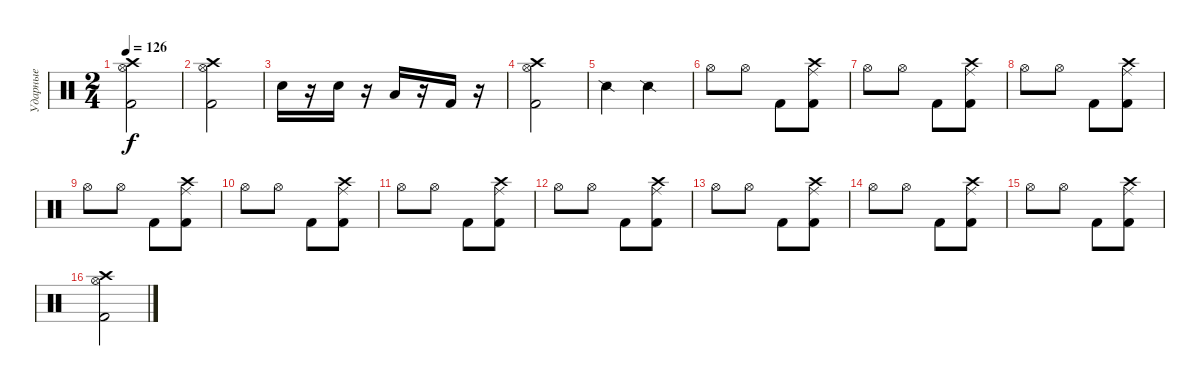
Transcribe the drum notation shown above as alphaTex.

\track ("Ударные" "Ударные") {instrument percussion}
\staff {score}
\articulation defaults
\ts (2 4)
\tempo 126
\clef neutral
\ks c
("Crash high (hit)" "Kick (hit) 2" "Hi-Hat (open)").2{dy f} |
("Crash high (hit)" "Kick (hit) 2" "Hi-Hat (open)").2 |
"Electric Snare (hit)".16 r.16 "Snare (hit) 2".16 r.16 "Low Tom (hit)".16 r.16 "Kick (hit) 2".16 r.16 |
("Crash high (hit)" "Kick (hit) 2" "Hi-Hat (open)").2 |
"Snare (side stick) 2".4 "Snare (side stick) 2".4 |
"Hi-Hat (open)".8 "Hi-Hat (open)".8 "Kick (hit) 2".8 ("Crash high (hit)" "Kick (hit) 2" "Ride (middle)").8 |
"Hi-Hat (open)".8 "Hi-Hat (open)".8 "Kick (hit) 2".8 ("Crash high (hit)" "Kick (hit) 2" "Ride (middle)").8 |
"Hi-Hat (open)".8 "Hi-Hat (open)".8 "Kick (hit) 2".8 ("Crash high (hit)" "Kick (hit) 2" "Ride (middle)").8 |
"Hi-Hat (open)".8 "Hi-Hat (open)".8 "Kick (hit) 2".8 ("Crash high (hit)" "Kick (hit) 2" "Ride (middle)").8 |
"Hi-Hat (open)".8 "Hi-Hat (open)".8 "Kick (hit) 2".8 ("Crash high (hit)" "Kick (hit) 2" "Ride (middle)").8 |
"Hi-Hat (open)".8 "Hi-Hat (open)".8 "Kick (hit) 2".8 ("Crash high (hit)" "Kick (hit) 2" "Ride (middle)").8 |
"Hi-Hat (open)".8 "Hi-Hat (open)".8 "Kick (hit) 2".8 ("Crash high (hit)" "Kick (hit) 2" "Ride (middle)").8 |
"Hi-Hat (open)".8 "Hi-Hat (open)".8 "Kick (hit) 2".8 ("Crash high (hit)" "Kick (hit) 2" "Ride (middle)").8 |
"Hi-Hat (open)".8 "Hi-Hat (open)".8 "Kick (hit) 2".8 ("Crash high (hit)" "Kick (hit) 2" "Ride (middle)").8 |
"Hi-Hat (open)".8 "Hi-Hat (open)".8 "Kick (hit) 2".8 ("Crash high (hit)" "Kick (hit) 2" "Ride (middle)").8 |
("Crash high (hit)" "Kick (hit) 2" "Hi-Hat (open)").2
